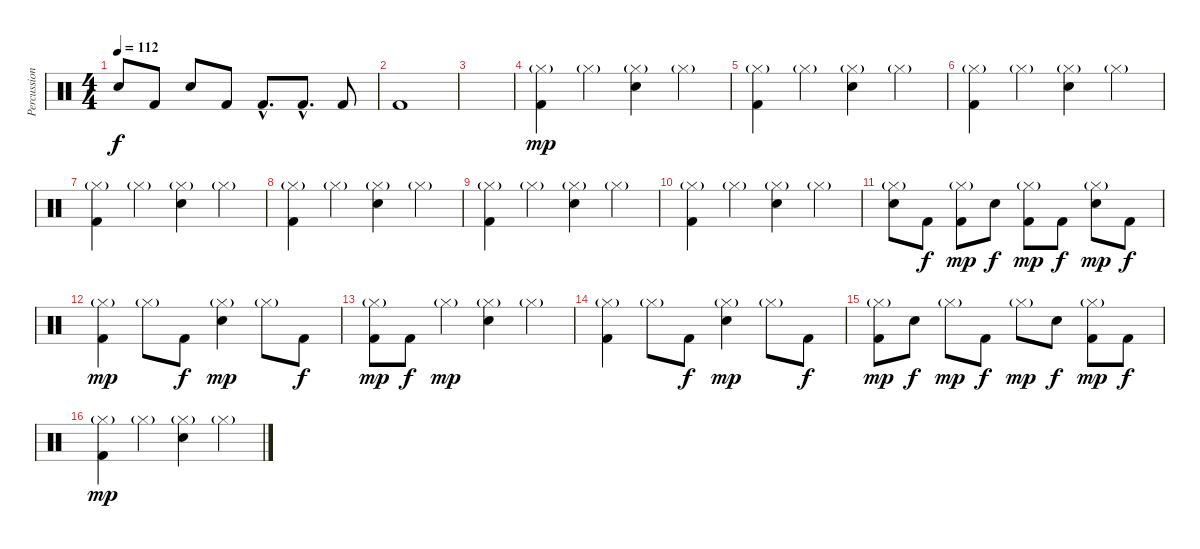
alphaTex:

\track ("Percussion" "Percussion") {instrument percussion}
\staff {score}
\articulation defaults
\ts (4 4)
\tempo 112
\clef neutral
\ks c "Snare (hit) 2".8{dy f} "Kick (hit) 2".8 "Snare (hit) 2".8 "Kick (hit) 2".8 "Kick (hit) 2"{hac}.8{d} "Kick (hit) 2"{hac}.8{d} "Kick (hit) 2".8
|
"Kick (hit) 2".1 |
|
("Hi-Hat (closed)"{g} "Kick (hit) 2").4{dy mp} "Hi-Hat (closed)"{g}.4 ("Hi-Hat (closed)"{g} "Electric Snare (hit)").4 "Hi-Hat (closed)"{g}.4 |
("Hi-Hat (closed)"{g} "Kick (hit) 2").4 "Hi-Hat (closed)"{g}.4 ("Hi-Hat (closed)"{g} "Electric Snare (hit)").4 "Hi-Hat (closed)"{g}.4 |
("Hi-Hat (closed)"{g} "Kick (hit) 2").4 "Hi-Hat (closed)"{g}.4 ("Hi-Hat (closed)"{g} "Electric Snare (hit)").4 "Hi-Hat (closed)"{g}.4 |
("Hi-Hat (closed)"{g} "Kick (hit) 2").4 "Hi-Hat (closed)"{g}.4 ("Hi-Hat (closed)"{g} "Electric Snare (hit)").4 "Hi-Hat (closed)"{g}.4 |
("Hi-Hat (closed)"{g} "Kick (hit) 2").4 "Hi-Hat (closed)"{g}.4 ("Hi-Hat (closed)"{g} "Electric Snare (hit)").4 "Hi-Hat (closed)"{g}.4 |
("Hi-Hat (closed)"{g} "Kick (hit) 2").4 "Hi-Hat (closed)"{g}.4 ("Hi-Hat (closed)"{g} "Electric Snare (hit)").4 "Hi-Hat (closed)"{g}.4 |
("Hi-Hat (closed)"{g} "Kick (hit) 2").4 "Hi-Hat (closed)"{g}.4 ("Hi-Hat (closed)"{g} "Electric Snare (hit)").4 "Hi-Hat (closed)"{g}.4 |
("Hi-Hat (closed)"{g} "Electric Snare (hit)").8 "Kick (hit) 2".8{dy f} ("Hi-Hat (closed)"{g} "Kick (hit) 2").8{dy mp} "Electric Snare (hit)".8{dy f} ("Hi-Hat (closed)"{g} "Kick (hit) 2").8{dy mp} "Kick (hit) 2".8{dy f} ("Hi-Hat (closed)"{g} "Electric Snare (hit)").8{dy mp} "Kick (hit) 2".8{dy f} |
("Hi-Hat (closed)"{g} "Kick (hit) 2").4{dy mp} "Hi-Hat (closed)"{g}.8 "Kick (hit) 2".8{dy f} ("Hi-Hat (closed)"{g} "Electric Snare (hit)").4{dy mp} "Hi-Hat (closed)"{g}.8 "Kick (hit) 2".8{dy f} |
("Hi-Hat (closed)"{g} "Kick (hit) 2").8{dy mp} "Kick (hit) 2".8{dy f} "Hi-Hat (closed)"{g}.4{dy mp} ("Hi-Hat (closed)"{g} "Electric Snare (hit)").4 "Hi-Hat (closed)"{g}.4 |
("Hi-Hat (closed)"{g} "Kick (hit) 2").4 "Hi-Hat (closed)"{g}.8 "Kick (hit) 2".8{dy f} ("Hi-Hat (closed)"{g} "Electric Snare (hit)").4{dy mp} "Hi-Hat (closed)"{g}.8 "Kick (hit) 2".8{dy f} |
("Hi-Hat (closed)"{g} "Kick (hit) 2").8{dy mp} "Electric Snare (hit)".8{dy f} "Hi-Hat (closed)"{g}.8{dy mp} "Kick (hit) 2".8{dy f} "Hi-Hat (closed)"{g}.8{dy mp} "Electric Snare (hit)".8{dy f} ("Hi-Hat (closed)"{g} "Kick (hit) 2").8{dy mp} "Kick (hit) 2".8{dy f} |
("Hi-Hat (closed)"{g} "Kick (hit) 2").4{dy mp} "Hi-Hat (closed)"{g}.4 ("Hi-Hat (closed)"{g} "Electric Snare (hit)").4 "Hi-Hat (closed)"{g}.4
